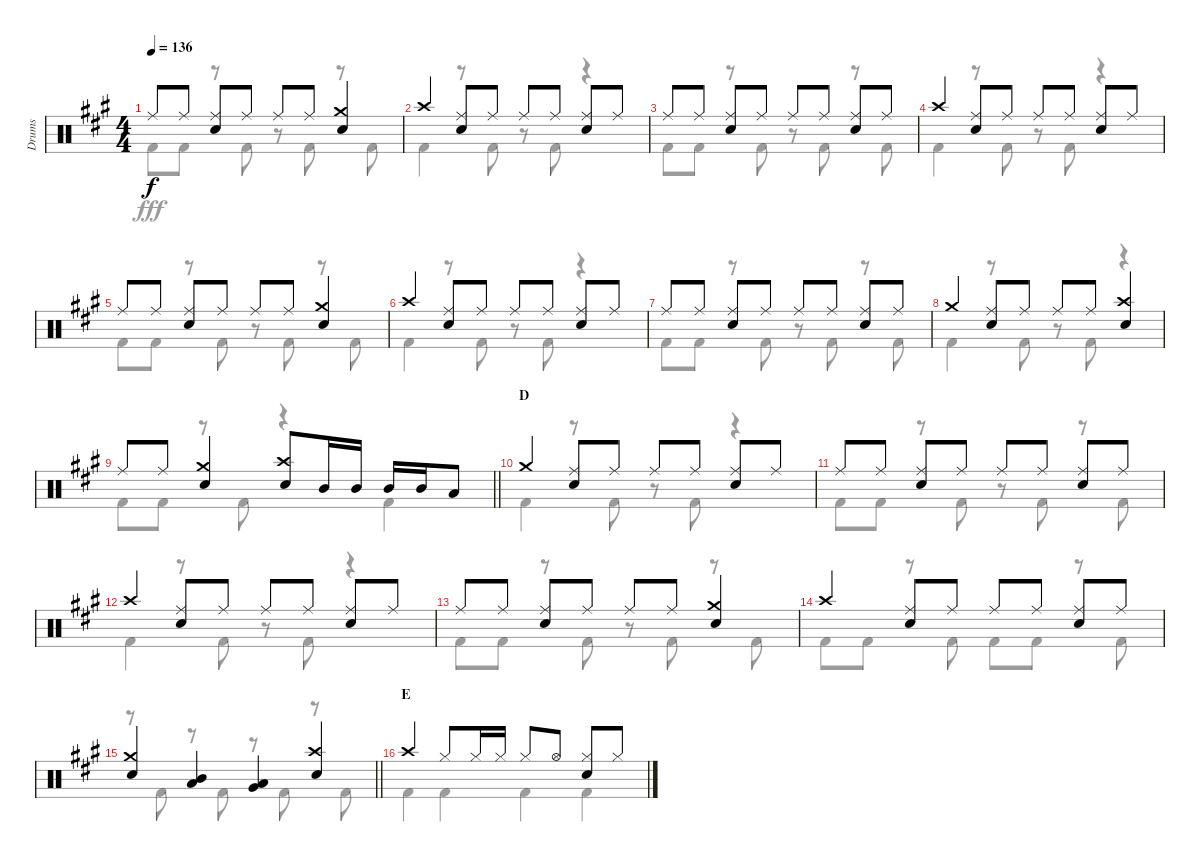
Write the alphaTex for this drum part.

\track ("Drums" "Drums") {instrument percussion}
\staff {score}
\articulation defaults
\voice
\ts (4 4)
\tempo 136
\clef neutral
\ks a "Ride (middle)".8{dy f} "Ride (middle)".8
("Ride (middle)" "Snare (hit) 2").8 "Ride (middle)".8 "Ride (middle)".8 "Ride (middle)".8 ("Crash medium (hit)" "Snare (hit) 2").4 |
"Crash high (hit)".4 ("Ride (middle)" "Snare (hit) 2").8 "Ride (middle)".8 "Ride (middle)".8 "Ride (middle)".8 ("Ride (middle)" "Snare (hit) 2").8 "Ride (middle)".8 |
"Ride (middle)".8 "Ride (middle)".8 ("Ride (middle)" "Snare (hit) 2").8 "Ride (middle)".8 "Ride (middle)".8 "Ride (middle)".8 ("Ride (middle)" "Snare (hit) 2").8 "Ride (middle)".8 |
"Crash high (hit)".4 ("Ride (middle)" "Snare (hit) 2").8 "Ride (middle)".8 "Ride (middle)".8 "Ride (middle)".8 ("Ride (middle)" "Snare (hit) 2").8 "Ride (middle)".8 |
"Ride (middle)".8 "Ride (middle)".8 ("Ride (middle)" "Snare (hit) 2").8 "Ride (middle)".8 "Ride (middle)".8 "Ride (middle)".8 ("Crash medium (hit)" "Snare (hit) 2").4 |
"Crash high (hit)".4 ("Ride (middle)" "Snare (hit) 2").8 "Ride (middle)".8 "Ride (middle)".8 "Ride (middle)".8 ("Ride (middle)" "Snare (hit) 2").8 "Ride (middle)".8 |
"Ride (middle)".8 "Ride (middle)".8 ("Ride (middle)" "Snare (hit) 2").8 "Ride (middle)".8 "Ride (middle)".8 "Ride (middle)".8 ("Ride (middle)" "Snare (hit) 2").8 "Ride (middle)".8 |
"Crash medium (hit)".4 ("Ride (middle)" "Snare (hit) 2").8 "Ride (middle)".8 "Ride (middle)".8 "Ride (middle)".8 ("Crash high (hit)" "Snare (hit) 2").4 |
\barLineRight lightlight "Ride (middle)".8 "Ride (middle)".8
("Crash medium (hit)" "Snare (hit) 2").4 ("Crash high (hit)" "Snare (hit) 2").8 "Mid Tom (hit)".16 "Mid Tom (hit)".16 "Mid Tom (hit)".16 "Mid Tom (hit)".16 "Low Tom (hit)".8 |
\section ("" "D")
"Crash medium (hit)".4 ("Ride (middle)" "Snare (hit) 2").8 "Ride (middle)".8 "Ride (middle)".8 "Ride (middle)".8 ("Ride (middle)" "Snare (hit) 2").8 "Ride (middle)".8 |
"Ride (middle)".8 "Ride (middle)".8 ("Ride (middle)" "Snare (hit) 2").8 "Ride (middle)".8 "Ride (middle)".8 "Ride (middle)".8 ("Ride (middle)" "Snare (hit) 2").8 "Ride (middle)".8 |
"Crash high (hit)".4 ("Ride (middle)" "Snare (hit) 2").8 "Ride (middle)".8 "Ride (middle)".8 "Ride (middle)".8 ("Ride (middle)" "Snare (hit) 2").8 "Ride (middle)".8 |
"Ride (middle)".8 "Ride (middle)".8 ("Ride (middle)" "Snare (hit) 2").8 "Ride (middle)".8 "Ride (middle)".8 "Ride (middle)".8 ("Crash medium (hit)" "Snare (hit) 2").4 |
"Crash high (hit)".4 ("Ride (middle)" "Snare (hit) 2").8 "Ride (middle)".8 "Ride (middle)".8 "Ride (middle)".8 ("Ride (middle)" "Snare (hit) 2").8 "Ride (middle)".8 |
\barLineRight lightlight
("Crash medium (hit)" "Snare (hit) 2").4 ("Mid Tom (hit)" "Low Tom (hit)").4 ("Low Tom (hit)" "Very Low Tom (hit)").4 ("Crash high (hit)" "Snare (hit) 2").4 |
\section ("" "E")
"Crash high (hit)".4 "Hi-Hat (closed)".8 "Hi-Hat (closed)".16 "Hi-Hat (closed)".16 "Hi-Hat (closed)".8 "Hi-Hat (open)".8 ("Hi-Hat (closed)" "Snare (hit) 2").8 "Hi-Hat (closed)".8
\voice
\clef neutral
\ottava regular
\simile none
\ks a "Kick (hit) 2".8{dy fff} "Kick (hit) 2".8
r.8 "Kick (hit) 2".8 r.8 "Kick (hit) 2".8 r.8 "Kick (hit) 2".8 |
"Kick (hit) 2".4 r.8 "Kick (hit) 2".8 r.8 "Kick (hit) 2".8 r.4 |
"Kick (hit) 2".8 "Kick (hit) 2".8 r.8 "Kick (hit) 2".8 r.8 "Kick (hit) 2".8 r.8 "Kick (hit) 2".8 |
"Kick (hit) 2".4 r.8 "Kick (hit) 2".8 r.8 "Kick (hit) 2".8 r.4 |
"Kick (hit) 2".8 "Kick (hit) 2".8 r.8 "Kick (hit) 2".8 r.8 "Kick (hit) 2".8 r.8 "Kick (hit) 2".8 |
"Kick (hit) 2".4 r.8 "Kick (hit) 2".8 r.8 "Kick (hit) 2".8 r.4 |
"Kick (hit) 2".8 "Kick (hit) 2".8 r.8 "Kick (hit) 2".8 r.8 "Kick (hit) 2".8 r.8 "Kick (hit) 2".8 |
"Kick (hit) 2".4 r.8 "Kick (hit) 2".8 r.8 "Kick (hit) 2".8 r.4 |
\barLineRight lightlight "Kick (hit) 2".8 "Kick (hit) 2".8
r.8 "Kick (hit) 2".8 r.4 "Kick (hit) 2".4 |
"Kick (hit) 2".4 r.8 "Kick (hit) 2".8 r.8 "Kick (hit) 2".8 r.4 |
"Kick (hit) 2".8 "Kick (hit) 2".8 r.8 "Kick (hit) 2".8 r.8 "Kick (hit) 2".8 r.8 "Kick (hit) 2".8 |
"Kick (hit) 2".4 r.8 "Kick (hit) 2".8 r.8 "Kick (hit) 2".8 r.4 |
"Kick (hit) 2".8 "Kick (hit) 2".8 r.8 "Kick (hit) 2".8 r.8 "Kick (hit) 2".8 r.8 "Kick (hit) 2".8 |
"Kick (hit) 2".8 "Kick (hit) 2".8 r.8 "Kick (hit) 2".8 "Kick (hit) 2".8 "Kick (hit) 2".8 r.8 "Kick (hit) 2".8 |
\barLineRight lightlight
r.8 "Kick (hit) 2".8 r.8 "Kick (hit) 2".8 r.8 "Kick (hit) 2".8 r.8 "Kick (hit) 2".8 |
"Kick (hit) 2".4 "Kick (hit) 2".4 "Kick (hit) 2".4 "Kick (hit) 2".4
